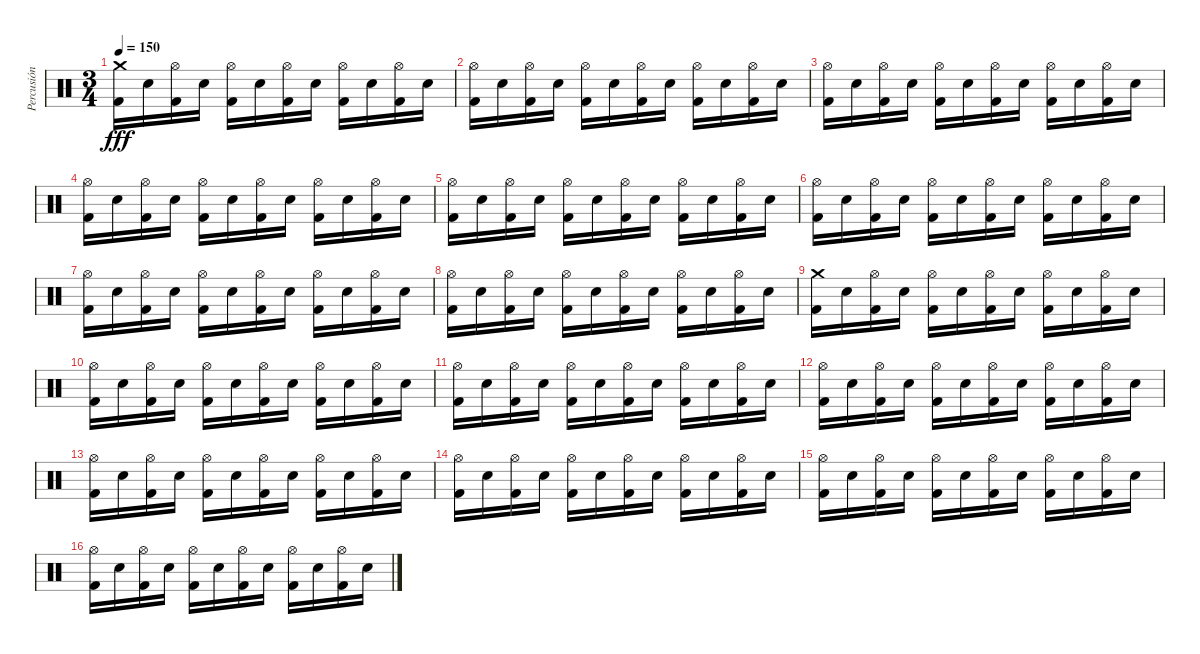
\track ("Percusión" "Percusión") {instrument percussion}
\staff {score}
\articulation defaults
\ts (3 4)
\tempo 150
\clef neutral
\ks c
("Crash medium (hit)" "Kick (hit) 2").16{dy fff} "Snare (hit) 2".16 ("Hi-Hat (open)" "Kick (hit) 2").16 "Snare (hit) 2".16 ("Hi-Hat (open)" "Kick (hit) 2").16 "Snare (hit) 2".16 ("Hi-Hat (open)" "Kick (hit) 2").16 "Snare (hit) 2".16 ("Hi-Hat (open)" "Kick (hit) 2").16 "Snare (hit) 2".16 ("Hi-Hat (open)" "Kick (hit) 2").16 "Snare (hit) 2".16 |
("Hi-Hat (open)" "Kick (hit) 2").16 "Snare (hit) 2".16 ("Hi-Hat (open)" "Kick (hit) 2").16 "Snare (hit) 2".16 ("Hi-Hat (open)" "Kick (hit) 2").16 "Snare (hit) 2".16 ("Hi-Hat (open)" "Kick (hit) 2").16 "Snare (hit) 2".16 ("Hi-Hat (open)" "Kick (hit) 2").16 "Snare (hit) 2".16 ("Hi-Hat (open)" "Kick (hit) 2").16 "Snare (hit) 2".16 |
("Hi-Hat (open)" "Kick (hit) 2").16 "Snare (hit) 2".16 ("Hi-Hat (open)" "Kick (hit) 2").16 "Snare (hit) 2".16 ("Hi-Hat (open)" "Kick (hit) 2").16 "Snare (hit) 2".16 ("Hi-Hat (open)" "Kick (hit) 2").16 "Snare (hit) 2".16 ("Hi-Hat (open)" "Kick (hit) 2").16 "Snare (hit) 2".16 ("Hi-Hat (open)" "Kick (hit) 2").16 "Snare (hit) 2".16 |
("Hi-Hat (open)" "Kick (hit) 2").16 "Snare (hit) 2".16 ("Hi-Hat (open)" "Kick (hit) 2").16 "Snare (hit) 2".16 ("Hi-Hat (open)" "Kick (hit) 2").16 "Snare (hit) 2".16 ("Hi-Hat (open)" "Kick (hit) 2").16 "Snare (hit) 2".16 ("Hi-Hat (open)" "Kick (hit) 2").16 "Snare (hit) 2".16 ("Hi-Hat (open)" "Kick (hit) 2").16 "Snare (hit) 2".16 |
("Hi-Hat (open)" "Kick (hit) 2").16 "Snare (hit) 2".16 ("Hi-Hat (open)" "Kick (hit) 2").16 "Snare (hit) 2".16 ("Hi-Hat (open)" "Kick (hit) 2").16 "Snare (hit) 2".16 ("Hi-Hat (open)" "Kick (hit) 2").16 "Snare (hit) 2".16 ("Hi-Hat (open)" "Kick (hit) 2").16 "Snare (hit) 2".16 ("Hi-Hat (open)" "Kick (hit) 2").16 "Snare (hit) 2".16 |
("Hi-Hat (open)" "Kick (hit) 2").16 "Snare (hit) 2".16 ("Hi-Hat (open)" "Kick (hit) 2").16 "Snare (hit) 2".16 ("Hi-Hat (open)" "Kick (hit) 2").16 "Snare (hit) 2".16 ("Hi-Hat (open)" "Kick (hit) 2").16 "Snare (hit) 2".16 ("Hi-Hat (open)" "Kick (hit) 2").16 "Snare (hit) 2".16 ("Hi-Hat (open)" "Kick (hit) 2").16 "Snare (hit) 2".16 |
("Hi-Hat (open)" "Kick (hit) 2").16 "Snare (hit) 2".16 ("Hi-Hat (open)" "Kick (hit) 2").16 "Snare (hit) 2".16 ("Hi-Hat (open)" "Kick (hit) 2").16 "Snare (hit) 2".16 ("Hi-Hat (open)" "Kick (hit) 2").16 "Snare (hit) 2".16 ("Hi-Hat (open)" "Kick (hit) 2").16 "Snare (hit) 2".16 ("Hi-Hat (open)" "Kick (hit) 2").16 "Snare (hit) 2".16 |
("Hi-Hat (open)" "Kick (hit) 2").16 "Snare (hit) 2".16 ("Hi-Hat (open)" "Kick (hit) 2").16 "Snare (hit) 2".16 ("Hi-Hat (open)" "Kick (hit) 2").16 "Snare (hit) 2".16 ("Hi-Hat (open)" "Kick (hit) 2").16 "Snare (hit) 2".16 ("Hi-Hat (open)" "Kick (hit) 2").16 "Snare (hit) 2".16 ("Hi-Hat (open)" "Kick (hit) 2").16 "Snare (hit) 2".16 |
("Crash medium (hit)" "Kick (hit) 2").16 "Snare (hit) 2".16 ("Hi-Hat (open)" "Kick (hit) 2").16 "Snare (hit) 2".16 ("Hi-Hat (open)" "Kick (hit) 2").16 "Snare (hit) 2".16 ("Hi-Hat (open)" "Kick (hit) 2").16 "Snare (hit) 2".16 ("Hi-Hat (open)" "Kick (hit) 2").16 "Snare (hit) 2".16 ("Hi-Hat (open)" "Kick (hit) 2").16 "Snare (hit) 2".16 |
("Hi-Hat (open)" "Kick (hit) 2").16 "Snare (hit) 2".16 ("Hi-Hat (open)" "Kick (hit) 2").16 "Snare (hit) 2".16 ("Hi-Hat (open)" "Kick (hit) 2").16 "Snare (hit) 2".16 ("Hi-Hat (open)" "Kick (hit) 2").16 "Snare (hit) 2".16 ("Hi-Hat (open)" "Kick (hit) 2").16 "Snare (hit) 2".16 ("Hi-Hat (open)" "Kick (hit) 2").16 "Snare (hit) 2".16 |
("Hi-Hat (open)" "Kick (hit) 2").16 "Snare (hit) 2".16 ("Hi-Hat (open)" "Kick (hit) 2").16 "Snare (hit) 2".16 ("Hi-Hat (open)" "Kick (hit) 2").16 "Snare (hit) 2".16 ("Hi-Hat (open)" "Kick (hit) 2").16 "Snare (hit) 2".16 ("Hi-Hat (open)" "Kick (hit) 2").16 "Snare (hit) 2".16 ("Hi-Hat (open)" "Kick (hit) 2").16 "Snare (hit) 2".16 |
("Hi-Hat (open)" "Kick (hit) 2").16 "Snare (hit) 2".16 ("Hi-Hat (open)" "Kick (hit) 2").16 "Snare (hit) 2".16 ("Hi-Hat (open)" "Kick (hit) 2").16 "Snare (hit) 2".16 ("Hi-Hat (open)" "Kick (hit) 2").16 "Snare (hit) 2".16 ("Hi-Hat (open)" "Kick (hit) 2").16 "Snare (hit) 2".16 ("Hi-Hat (open)" "Kick (hit) 2").16 "Snare (hit) 2".16 |
("Hi-Hat (open)" "Kick (hit) 2").16 "Snare (hit) 2".16 ("Hi-Hat (open)" "Kick (hit) 2").16 "Snare (hit) 2".16 ("Hi-Hat (open)" "Kick (hit) 2").16 "Snare (hit) 2".16 ("Hi-Hat (open)" "Kick (hit) 2").16 "Snare (hit) 2".16 ("Hi-Hat (open)" "Kick (hit) 2").16 "Snare (hit) 2".16 ("Hi-Hat (open)" "Kick (hit) 2").16 "Snare (hit) 2".16 |
("Hi-Hat (open)" "Kick (hit) 2").16 "Snare (hit) 2".16 ("Hi-Hat (open)" "Kick (hit) 2").16 "Snare (hit) 2".16 ("Hi-Hat (open)" "Kick (hit) 2").16 "Snare (hit) 2".16 ("Hi-Hat (open)" "Kick (hit) 2").16 "Snare (hit) 2".16 ("Hi-Hat (open)" "Kick (hit) 2").16 "Snare (hit) 2".16 ("Hi-Hat (open)" "Kick (hit) 2").16 "Snare (hit) 2".16 |
("Hi-Hat (open)" "Kick (hit) 2").16 "Snare (hit) 2".16 ("Hi-Hat (open)" "Kick (hit) 2").16 "Snare (hit) 2".16 ("Hi-Hat (open)" "Kick (hit) 2").16 "Snare (hit) 2".16 ("Hi-Hat (open)" "Kick (hit) 2").16 "Snare (hit) 2".16 ("Hi-Hat (open)" "Kick (hit) 2").16 "Snare (hit) 2".16 ("Hi-Hat (open)" "Kick (hit) 2").16 "Snare (hit) 2".16 |
("Hi-Hat (open)" "Kick (hit) 2").16 "Snare (hit) 2".16 ("Hi-Hat (open)" "Kick (hit) 2").16 "Snare (hit) 2".16 ("Hi-Hat (open)" "Kick (hit) 2").16 "Snare (hit) 2".16 ("Hi-Hat (open)" "Kick (hit) 2").16 "Snare (hit) 2".16 ("Hi-Hat (open)" "Kick (hit) 2").16 "Snare (hit) 2".16 ("Hi-Hat (open)" "Kick (hit) 2").16 "Snare (hit) 2".16
